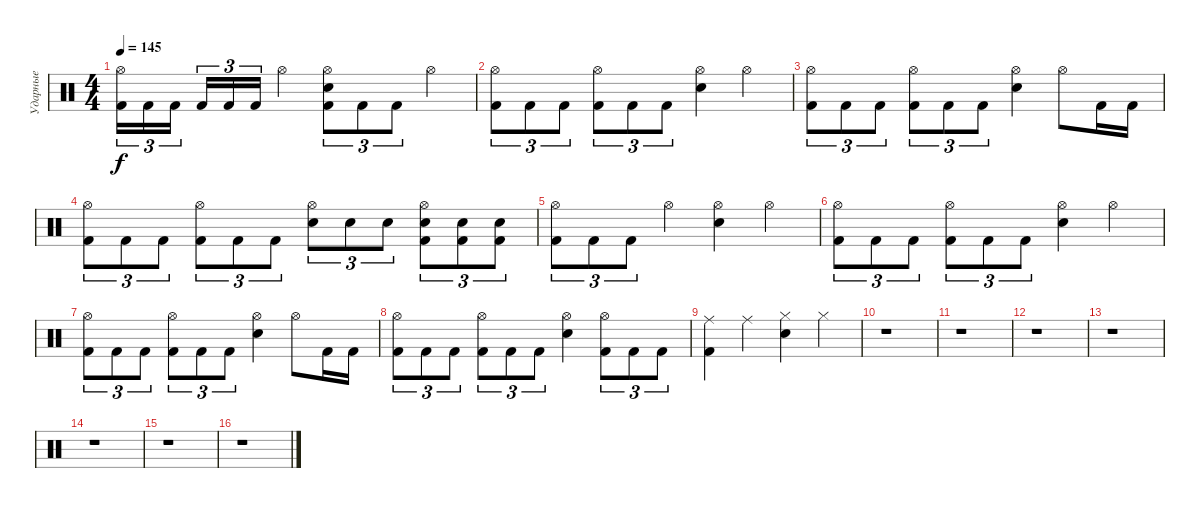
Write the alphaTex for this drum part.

\track ("Ударные" "Ударные") {instrument percussion}
\staff {score}
\articulation defaults
\ts (4 4)
\tempo 145
\clef neutral
\ks c
("Hi-Hat (open)" "Kick (hit) 2").16{tu (3 2) dy f} "Kick (hit) 2".16{tu (3 2)} "Kick (hit) 2".16{tu (3 2) beam splitsecondary} "Kick (hit) 2".16{tu (3 2)} "Kick (hit) 2".16{tu (3 2)} "Kick (hit) 2".16{tu (3 2)} "Hi-Hat (open)".4 ("Snare (hit) 2" "Hi-Hat (open)" "Kick (hit) 2").8{tu (3 2)} "Kick (hit) 2".8{tu (3 2)} "Kick (hit) 2".8{tu (3 2)} "Hi-Hat (open)".4 |
("Hi-Hat (open)" "Kick (hit) 2").8{tu (3 2)} "Kick (hit) 2".8{tu (3 2)} "Kick (hit) 2".8{tu (3 2)} ("Hi-Hat (open)" "Kick (hit) 2").8{tu (3 2)} "Kick (hit) 2".8{tu (3 2)} "Kick (hit) 2".8{tu (3 2)} ("Hi-Hat (open)" "Snare (hit) 2").4 "Hi-Hat (open)".4 |
("Hi-Hat (open)" "Kick (hit) 2").8{tu (3 2)} "Kick (hit) 2".8{tu (3 2)} "Kick (hit) 2".8{tu (3 2)} ("Hi-Hat (open)" "Kick (hit) 2").8{tu (3 2)} "Kick (hit) 2".8{tu (3 2)} "Kick (hit) 2".8{tu (3 2)} ("Hi-Hat (open)" "Snare (hit) 2").4 "Hi-Hat (open)".8 "Kick (hit) 2".16 "Kick (hit) 2".16 |
("Hi-Hat (open)" "Kick (hit) 2").8{tu (3 2)} "Kick (hit) 2".8{tu (3 2)} "Kick (hit) 2".8{tu (3 2)} ("Hi-Hat (open)" "Kick (hit) 2").8{tu (3 2)} "Kick (hit) 2".8{tu (3 2)} "Kick (hit) 2".8{tu (3 2)} ("Hi-Hat (open)" "Snare (hit) 2").8{tu (3 2)} "Snare (hit) 2".8{tu (3 2)} "Snare (hit) 2".8{tu (3 2)} ("Hi-Hat (open)" "Snare (hit) 2" "Kick (hit) 2").8{tu (3 2)} ("Snare (hit) 2" "Kick (hit) 2").8{tu (3 2)} ("Snare (hit) 2" "Kick (hit) 2").8{tu (3 2)} |
("Hi-Hat (open)" "Kick (hit) 2").8{tu (3 2)} "Kick (hit) 2".8{tu (3 2)} "Kick (hit) 2".8{tu (3 2)} "Hi-Hat (open)".4 ("Hi-Hat (open)" "Snare (hit) 2").4 "Hi-Hat (open)".4 |
("Hi-Hat (open)" "Kick (hit) 2").8{tu (3 2)} "Kick (hit) 2".8{tu (3 2)} "Kick (hit) 2".8{tu (3 2)} ("Hi-Hat (open)" "Kick (hit) 2").8{tu (3 2)} "Kick (hit) 2".8{tu (3 2)} "Kick (hit) 2".8{tu (3 2)} ("Hi-Hat (open)" "Snare (hit) 2").4 "Hi-Hat (open)".4 |
("Hi-Hat (open)" "Kick (hit) 2").8{tu (3 2)} "Kick (hit) 2".8{tu (3 2)} "Kick (hit) 2".8{tu (3 2)} ("Hi-Hat (open)" "Kick (hit) 2").8{tu (3 2)} "Kick (hit) 2".8{tu (3 2)} "Kick (hit) 2".8{tu (3 2)} ("Hi-Hat (open)" "Snare (hit) 2").4 "Hi-Hat (open)".8 "Kick (hit) 2".16 "Kick (hit) 2".16 |
("Hi-Hat (open)" "Kick (hit) 2").8{tu (3 2)} "Kick (hit) 2".8{tu (3 2)} "Kick (hit) 2".8{tu (3 2)} ("Hi-Hat (open)" "Kick (hit) 2").8{tu (3 2)} "Kick (hit) 2".8{tu (3 2)} "Kick (hit) 2".8{tu (3 2)} ("Hi-Hat (open)" "Snare (hit) 2").4 ("Hi-Hat (open)" "Kick (hit) 2").8{tu (3 2)} "Kick (hit) 2".8{tu (3 2)} "Kick (hit) 2".8{tu (3 2)} |
("Ride (middle)" "Kick (hit) 2").4 "Ride (middle)".4 ("Hi-Hat (closed)" "Snare (hit) 2").4 "Hi-Hat (closed)".4 |
r.1 |
r.1 |
r.1 |
r.1 |
r.1 |
r.1 |
r.1
